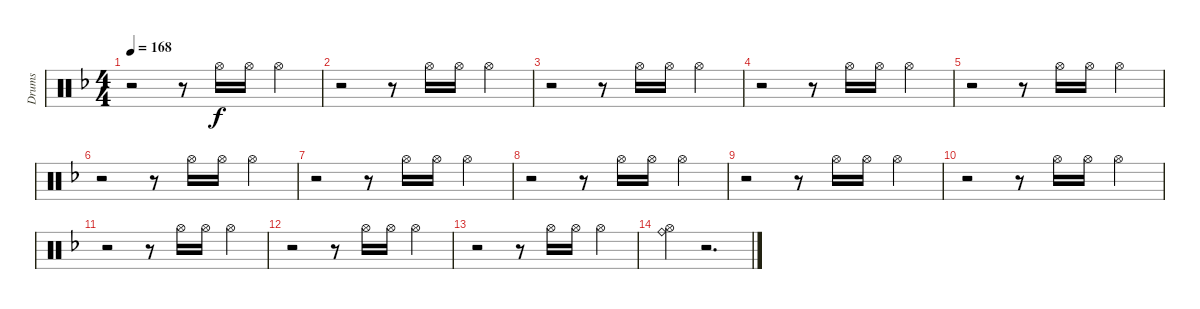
\track ("Drums" "Drums") {instrument percussion}
\staff {score}
\articulation defaults
\ts (4 4)
\tempo 168
\clef neutral
\ks f
r.2{dy f} r.8 "Hi-Hat (open)".16 "Hi-Hat (open)".16 "Hi-Hat (open)".4 |
r.2 r.8 "Hi-Hat (open)".16 "Hi-Hat (open)".16 "Hi-Hat (open)".4 |
r.2 r.8 "Hi-Hat (open)".16 "Hi-Hat (open)".16 "Hi-Hat (open)".4 |
r.2 r.8 "Hi-Hat (open)".16 "Hi-Hat (open)".16 "Hi-Hat (open)".4 |
r.2 r.8 "Hi-Hat (open)".16 "Hi-Hat (open)".16 "Hi-Hat (open)".4 |
r.2 r.8 "Hi-Hat (open)".16 "Hi-Hat (open)".16 "Hi-Hat (open)".4 |
r.2 r.8 "Hi-Hat (open)".16 "Hi-Hat (open)".16 "Hi-Hat (open)".4 |
r.2 r.8 "Hi-Hat (open)".16 "Hi-Hat (open)".16 "Hi-Hat (open)".4 |
r.2 r.8 "Hi-Hat (open)".16 "Hi-Hat (open)".16 "Hi-Hat (open)".4 |
r.2 r.8 "Hi-Hat (open)".16 "Hi-Hat (open)".16 "Hi-Hat (open)".4 |
r.2 r.8 "Hi-Hat (open)".16 "Hi-Hat (open)".16 "Hi-Hat (open)".4 |
r.2 r.8 "Hi-Hat (open)".16 "Hi-Hat (open)".16 "Hi-Hat (open)".4 |
r.2 r.8 "Hi-Hat (open)".16 "Hi-Hat (open)".16 "Hi-Hat (open)".4 |
("Hi-Hat (open)" "Ride (bell)").4 r.2{d}
